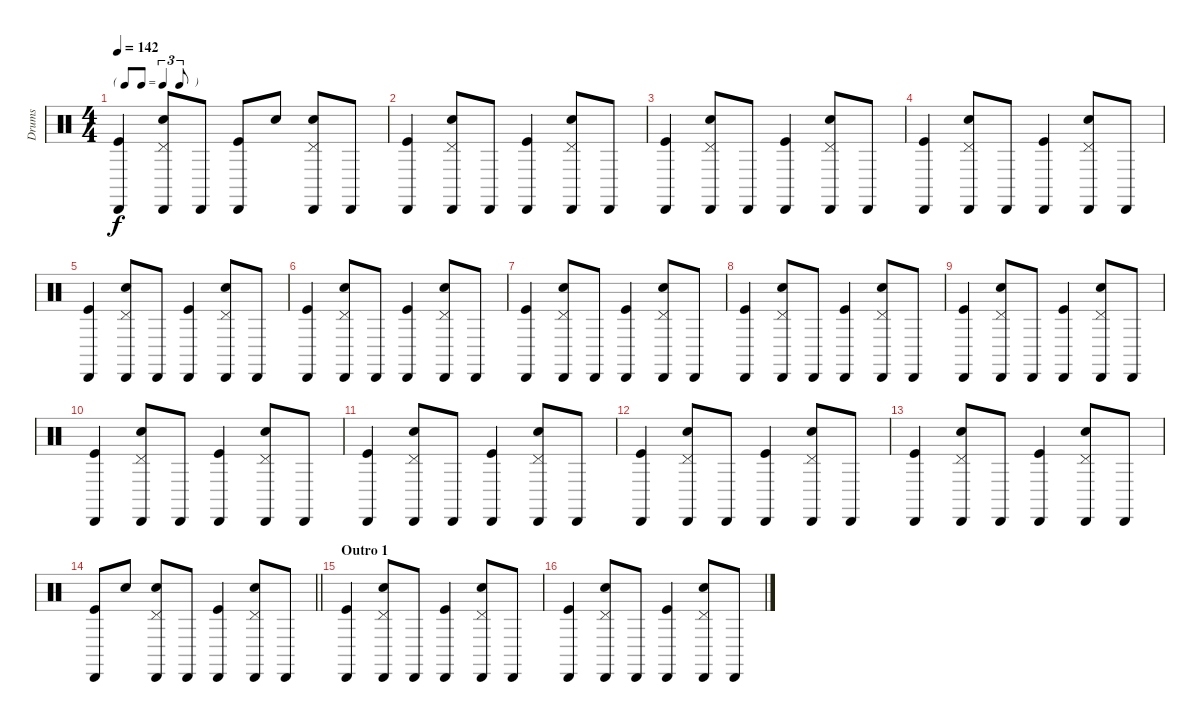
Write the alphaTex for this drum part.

\track ("Drums" "Drums") {instrument percussion}
\staff {score}
\articulation defaults
\ts (4 4)
\tf triplet8th
\tempo 142
\clef neutral
\ks c
("Cabasa (hit)" "Kick (hit)").4{dy f} ("Pedal Hi-Hat (hit)" "Cabasa (hit)" "Snare (hit) 2").8 "Cabasa (hit)".8 ("Cabasa (hit)" "Kick (hit)").8 "Snare (hit) 2".8 ("Pedal Hi-Hat (hit)" "Cabasa (hit)" "Snare (hit) 2").8 "Cabasa (hit)".8 |
("Cabasa (hit)" "Kick (hit)").4 ("Pedal Hi-Hat (hit)" "Cabasa (hit)" "Snare (hit) 2").8 "Cabasa (hit)".8 ("Cabasa (hit)" "Kick (hit)").4 ("Pedal Hi-Hat (hit)" "Cabasa (hit)" "Snare (hit) 2").8 "Cabasa (hit)".8 |
("Cabasa (hit)" "Kick (hit)").4 ("Pedal Hi-Hat (hit)" "Cabasa (hit)" "Snare (hit) 2").8 "Cabasa (hit)".8 ("Cabasa (hit)" "Kick (hit)").4 ("Pedal Hi-Hat (hit)" "Cabasa (hit)" "Snare (hit) 2").8 "Cabasa (hit)".8 |
("Cabasa (hit)" "Kick (hit)").4 ("Pedal Hi-Hat (hit)" "Cabasa (hit)" "Snare (hit) 2").8 "Cabasa (hit)".8 ("Cabasa (hit)" "Kick (hit)").4 ("Pedal Hi-Hat (hit)" "Cabasa (hit)" "Snare (hit) 2").8 "Cabasa (hit)".8 |
("Cabasa (hit)" "Kick (hit)").4 ("Pedal Hi-Hat (hit)" "Cabasa (hit)" "Snare (hit) 2").8 "Cabasa (hit)".8 ("Cabasa (hit)" "Kick (hit)").4 ("Pedal Hi-Hat (hit)" "Cabasa (hit)" "Snare (hit) 2").8 "Cabasa (hit)".8 |
("Cabasa (hit)" "Kick (hit)").4 ("Pedal Hi-Hat (hit)" "Cabasa (hit)" "Snare (hit) 2").8 "Cabasa (hit)".8 ("Cabasa (hit)" "Kick (hit)").4 ("Pedal Hi-Hat (hit)" "Cabasa (hit)" "Snare (hit) 2").8 "Cabasa (hit)".8 |
("Cabasa (hit)" "Kick (hit)").4 ("Pedal Hi-Hat (hit)" "Cabasa (hit)" "Snare (hit) 2").8 "Cabasa (hit)".8 ("Cabasa (hit)" "Kick (hit)").4 ("Pedal Hi-Hat (hit)" "Cabasa (hit)" "Snare (hit) 2").8 "Cabasa (hit)".8 |
("Cabasa (hit)" "Kick (hit)").4 ("Pedal Hi-Hat (hit)" "Cabasa (hit)" "Snare (hit) 2").8 "Cabasa (hit)".8 ("Cabasa (hit)" "Kick (hit)").4 ("Pedal Hi-Hat (hit)" "Cabasa (hit)" "Snare (hit) 2").8 "Cabasa (hit)".8 |
("Cabasa (hit)" "Kick (hit)").4 ("Pedal Hi-Hat (hit)" "Cabasa (hit)" "Snare (hit) 2").8 "Cabasa (hit)".8 ("Cabasa (hit)" "Kick (hit)").4 ("Pedal Hi-Hat (hit)" "Cabasa (hit)" "Snare (hit) 2").8 "Cabasa (hit)".8 |
("Cabasa (hit)" "Kick (hit)").4 ("Pedal Hi-Hat (hit)" "Cabasa (hit)" "Snare (hit) 2").8 "Cabasa (hit)".8 ("Cabasa (hit)" "Kick (hit)").4 ("Pedal Hi-Hat (hit)" "Cabasa (hit)" "Snare (hit) 2").8 "Cabasa (hit)".8 |
("Cabasa (hit)" "Kick (hit)").4 ("Pedal Hi-Hat (hit)" "Cabasa (hit)" "Snare (hit) 2").8 "Cabasa (hit)".8 ("Cabasa (hit)" "Kick (hit)").4 ("Pedal Hi-Hat (hit)" "Cabasa (hit)" "Snare (hit) 2").8 "Cabasa (hit)".8 |
("Cabasa (hit)" "Kick (hit)").4 ("Pedal Hi-Hat (hit)" "Cabasa (hit)" "Snare (hit) 2").8 "Cabasa (hit)".8 ("Cabasa (hit)" "Kick (hit)").4 ("Pedal Hi-Hat (hit)" "Cabasa (hit)" "Snare (hit) 2").8 "Cabasa (hit)".8 |
("Cabasa (hit)" "Kick (hit)").4 ("Pedal Hi-Hat (hit)" "Cabasa (hit)" "Snare (hit) 2").8 "Cabasa (hit)".8 ("Cabasa (hit)" "Kick (hit)").4 ("Pedal Hi-Hat (hit)" "Cabasa (hit)" "Snare (hit) 2").8 "Cabasa (hit)".8 |
\barLineRight lightlight
("Cabasa (hit)" "Kick (hit)").8 "Snare (hit) 2".8 ("Pedal Hi-Hat (hit)" "Cabasa (hit)" "Snare (hit) 2").8 "Cabasa (hit)".8 ("Cabasa (hit)" "Kick (hit)").4 ("Pedal Hi-Hat (hit)" "Cabasa (hit)" "Snare (hit) 2").8 "Cabasa (hit)".8 |
\section ("" "Outro 1")
("Cabasa (hit)" "Kick (hit)").4 ("Pedal Hi-Hat (hit)" "Cabasa (hit)" "Snare (hit) 2").8 "Cabasa (hit)".8 ("Cabasa (hit)" "Kick (hit)").4 ("Pedal Hi-Hat (hit)" "Cabasa (hit)" "Snare (hit) 2").8 "Cabasa (hit)".8 |
("Cabasa (hit)" "Kick (hit)").4 ("Pedal Hi-Hat (hit)" "Cabasa (hit)" "Snare (hit) 2").8 "Cabasa (hit)".8 ("Cabasa (hit)" "Kick (hit)").4 ("Pedal Hi-Hat (hit)" "Cabasa (hit)" "Snare (hit) 2").8 "Cabasa (hit)".8
